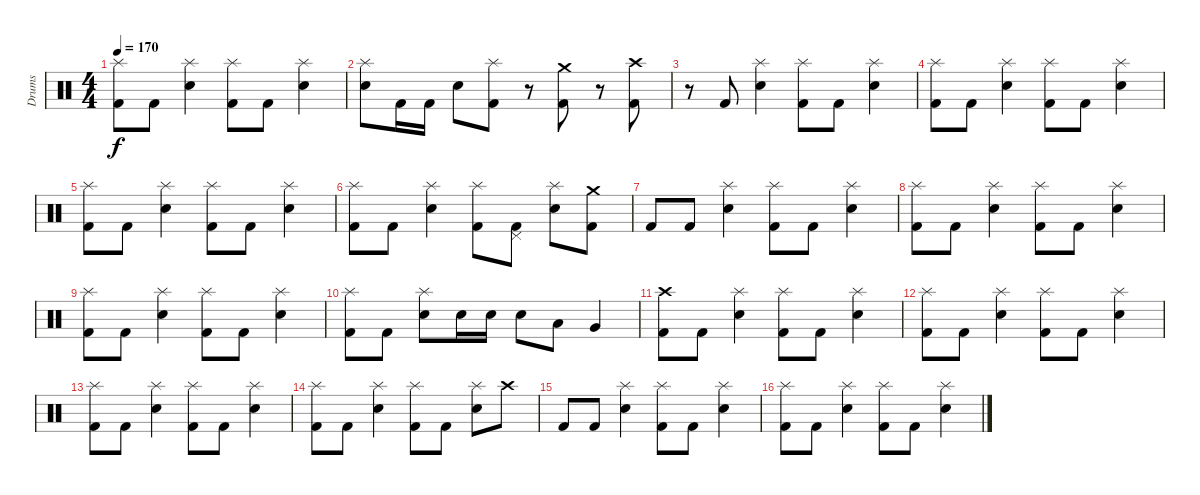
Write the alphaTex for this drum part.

\track ("Drums" "Drums") {instrument percussion}
\staff {score}
\articulation defaults
\ts (4 4)
\tempo 170
\clef neutral
\ks c
("Splash (hit)" "Kick (hit) 2").8{dy f} "Kick (hit) 2".8 ("Splash (hit)" "Electric Snare (hit)").4 ("Splash (hit)" "Kick (hit) 2").8 "Kick (hit) 2".8 ("Splash (hit)" "Electric Snare (hit)").4 |
("Splash (hit)" "Electric Snare (hit)").8 "Kick (hit) 2".16 "Kick (hit) 2".16 "Electric Snare (hit)".8 ("Splash (hit)" "Kick (hit) 2").8 r.8 ("Crash medium (hit)" "Kick (hit) 2").8 r.8 ("Crash high (hit)" "Kick (hit) 2").8 |
r.8 "Kick (hit) 2".8 ("Splash (hit)" "Electric Snare (hit)").4 ("Splash (hit)" "Kick (hit) 2").8 "Kick (hit) 2".8 ("Splash (hit)" "Electric Snare (hit)").4 |
("Splash (hit)" "Kick (hit) 2").8 "Kick (hit) 2".8 ("Splash (hit)" "Electric Snare (hit)").4 ("Splash (hit)" "Kick (hit) 2").8 "Kick (hit) 2".8 ("Splash (hit)" "Electric Snare (hit)").4 |
("Splash (hit)" "Kick (hit) 2").8 "Kick (hit) 2".8 ("Splash (hit)" "Electric Snare (hit)").4 ("Splash (hit)" "Kick (hit) 2").8 "Kick (hit) 2".8 ("Splash (hit)" "Electric Snare (hit)").4 |
("Splash (hit)" "Kick (hit) 2").8 "Kick (hit) 2".8 ("Splash (hit)" "Electric Snare (hit)").4 ("Splash (hit)" "Kick (hit) 2").8 ("Pedal Hi-Hat (hit)" "Kick (hit) 2").8 ("Splash (hit)" "Electric Snare (hit)").8 ("Crash medium (hit)" "Kick (hit) 2").8 |
"Kick (hit) 2".8 "Kick (hit) 2".8 ("Splash (hit)" "Electric Snare (hit)").4 ("Splash (hit)" "Kick (hit) 2").8 "Kick (hit) 2".8 ("Splash (hit)" "Electric Snare (hit)").4 |
("Splash (hit)" "Kick (hit) 2").8 "Kick (hit) 2".8 ("Splash (hit)" "Electric Snare (hit)").4 ("Splash (hit)" "Kick (hit) 2").8 "Kick (hit) 2".8 ("Splash (hit)" "Electric Snare (hit)").4 |
("Splash (hit)" "Kick (hit) 2").8 "Kick (hit) 2".8 ("Splash (hit)" "Electric Snare (hit)").4 ("Splash (hit)" "Kick (hit) 2").8 "Kick (hit) 2".8 ("Splash (hit)" "Electric Snare (hit)").4 |
("Splash (hit)" "Kick (hit) 2").8 "Kick (hit) 2".8 ("Splash (hit)" "Electric Snare (hit)").8 "Electric Snare (hit)".16 "Electric Snare (hit)".16 "Electric Snare (hit)".8 "Low Tom (hit)".8 "Very Low Tom (hit)".4 |
("Crash high (hit)" "Kick (hit) 2").8 "Kick (hit) 2".8 ("Splash (hit)" "Electric Snare (hit)").4 ("Splash (hit)" "Kick (hit) 2").8 "Kick (hit) 2".8 ("Splash (hit)" "Electric Snare (hit)").4 |
("Splash (hit)" "Kick (hit) 2").8 "Kick (hit) 2".8 ("Splash (hit)" "Electric Snare (hit)").4 ("Splash (hit)" "Kick (hit) 2").8 "Kick (hit) 2".8 ("Splash (hit)" "Electric Snare (hit)").4 |
("Splash (hit)" "Kick (hit) 2").8 "Kick (hit) 2".8 ("Splash (hit)" "Electric Snare (hit)").4 ("Splash (hit)" "Kick (hit) 2").8 "Kick (hit) 2".8 ("Splash (hit)" "Electric Snare (hit)").4 |
("Splash (hit)" "Kick (hit) 2").8 "Kick (hit) 2".8 ("Splash (hit)" "Electric Snare (hit)").4 ("Splash (hit)" "Kick (hit) 2").8 "Kick (hit) 2".8 ("Splash (hit)" "Electric Snare (hit)").8 "Crash high (hit)".8 |
"Kick (hit) 2".8 "Kick (hit) 2".8 ("Splash (hit)" "Electric Snare (hit)").4 ("Splash (hit)" "Kick (hit) 2").8 "Kick (hit) 2".8 ("Splash (hit)" "Electric Snare (hit)").4 |
("Splash (hit)" "Kick (hit) 2").8 "Kick (hit) 2".8 ("Splash (hit)" "Electric Snare (hit)").4 ("Splash (hit)" "Kick (hit) 2").8 "Kick (hit) 2".8 ("Splash (hit)" "Electric Snare (hit)").4
